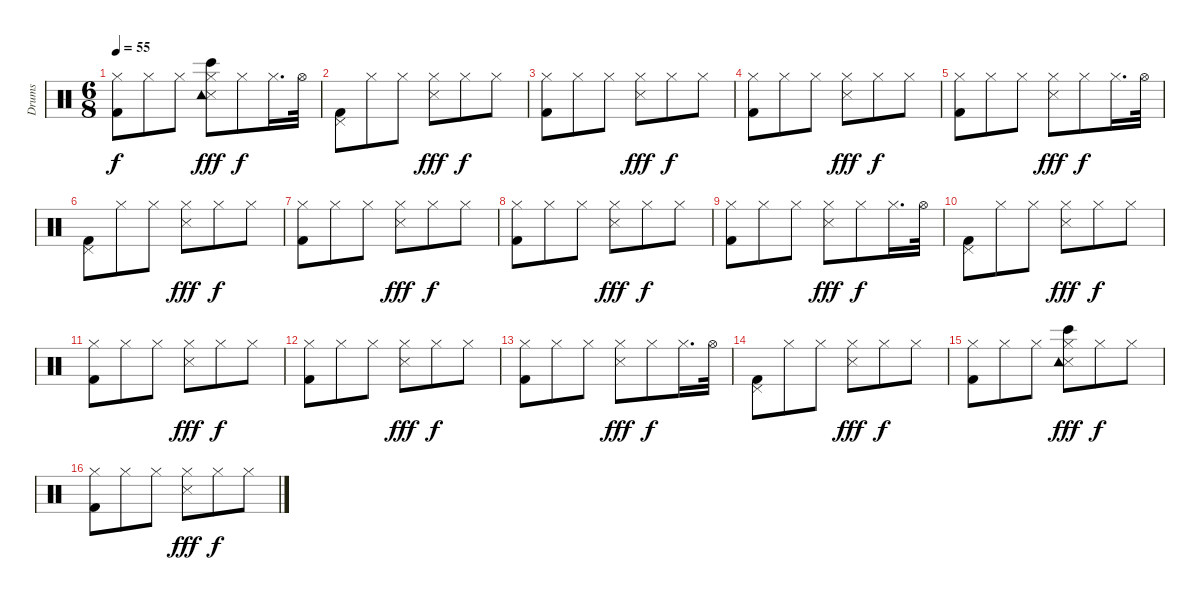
\track ("Drums               " "Drums     ") {instrument percussion}
\staff {score}
\articulation defaults
\ts (6 8)
\tempo 55
\clef neutral
\ks c
("Kick (hit) 2" "Hi-Hat (closed)").8{dy f} "Hi-Hat (closed)".8 "Hi-Hat (closed)".8 ("Hi-Hat (closed)" "Snare (side stick) 3" "Bongo High (hit)" "Tambourine (hit)").8{dy fff} "Hi-Hat (closed)".8{dy f} "Hi-Hat (closed)".16{d} "Hi-Hat (open)".32 |
("Pedal Hi-Hat (hit)" "Kick (hit) 2").8 "Hi-Hat (closed)".8 "Hi-Hat (closed)".8 ("Hi-Hat (closed)" "Snare (side stick) 3").8{dy fff} "Hi-Hat (closed)".8{dy f} "Hi-Hat (closed)".8 |
("Kick (hit) 2" "Hi-Hat (closed)").8 "Hi-Hat (closed)".8 "Hi-Hat (closed)".8 ("Hi-Hat (closed)" "Snare (side stick) 3").8{dy fff} "Hi-Hat (closed)".8{dy f} "Hi-Hat (closed)".8 |
("Kick (hit) 2" "Hi-Hat (closed)").8 "Hi-Hat (closed)".8 "Hi-Hat (closed)".8 ("Hi-Hat (closed)" "Snare (side stick) 3").8{dy fff} "Hi-Hat (closed)".8{dy f} "Hi-Hat (closed)".8 |
("Kick (hit) 2" "Hi-Hat (closed)").8 "Hi-Hat (closed)".8 "Hi-Hat (closed)".8 ("Hi-Hat (closed)" "Snare (side stick) 3").8{dy fff} "Hi-Hat (closed)".8{dy f} "Hi-Hat (closed)".16{d} "Hi-Hat (open)".32 |
("Pedal Hi-Hat (hit)" "Kick (hit) 2").8 "Hi-Hat (closed)".8 "Hi-Hat (closed)".8 ("Hi-Hat (closed)" "Snare (side stick) 3").8{dy fff} "Hi-Hat (closed)".8{dy f} "Hi-Hat (closed)".8 |
("Kick (hit) 2" "Hi-Hat (closed)").8 "Hi-Hat (closed)".8 "Hi-Hat (closed)".8 ("Hi-Hat (closed)" "Snare (side stick) 3").8{dy fff} "Hi-Hat (closed)".8{dy f} "Hi-Hat (closed)".8 |
("Kick (hit) 2" "Hi-Hat (closed)").8 "Hi-Hat (closed)".8 "Hi-Hat (closed)".8 ("Hi-Hat (closed)" "Snare (side stick) 3").8{dy fff} "Hi-Hat (closed)".8{dy f} "Hi-Hat (closed)".8 |
("Kick (hit) 2" "Hi-Hat (closed)").8 "Hi-Hat (closed)".8 "Hi-Hat (closed)".8 ("Hi-Hat (closed)" "Snare (side stick) 3").8{dy fff} "Hi-Hat (closed)".8{dy f} "Hi-Hat (closed)".16{d} "Hi-Hat (open)".32 |
("Pedal Hi-Hat (hit)" "Kick (hit) 2").8 "Hi-Hat (closed)".8 "Hi-Hat (closed)".8 ("Hi-Hat (closed)" "Snare (side stick) 3").8{dy fff} "Hi-Hat (closed)".8{dy f} "Hi-Hat (closed)".8 |
("Kick (hit) 2" "Hi-Hat (closed)").8 "Hi-Hat (closed)".8 "Hi-Hat (closed)".8 ("Hi-Hat (closed)" "Snare (side stick) 3").8{dy fff} "Hi-Hat (closed)".8{dy f} "Hi-Hat (closed)".8 |
("Kick (hit) 2" "Hi-Hat (closed)").8 "Hi-Hat (closed)".8 "Hi-Hat (closed)".8 ("Hi-Hat (closed)" "Snare (side stick) 3").8{dy fff} "Hi-Hat (closed)".8{dy f} "Hi-Hat (closed)".8 |
("Kick (hit) 2" "Hi-Hat (closed)").8 "Hi-Hat (closed)".8 "Hi-Hat (closed)".8 ("Hi-Hat (closed)" "Snare (side stick) 3").8{dy fff} "Hi-Hat (closed)".8{dy f} "Hi-Hat (closed)".16{d} "Hi-Hat (open)".32 |
("Pedal Hi-Hat (hit)" "Kick (hit) 2").8 "Hi-Hat (closed)".8 "Hi-Hat (closed)".8 ("Hi-Hat (closed)" "Snare (side stick) 3").8{dy fff} "Hi-Hat (closed)".8{dy f} "Hi-Hat (closed)".8 |
("Kick (hit) 2" "Hi-Hat (closed)").8 "Hi-Hat (closed)".8 "Hi-Hat (closed)".8 ("Hi-Hat (closed)" "Snare (side stick) 3" "Bongo High (hit)" "Tambourine (hit)").8{dy fff} "Hi-Hat (closed)".8{dy f} "Hi-Hat (closed)".8 |
("Kick (hit) 2" "Hi-Hat (closed)").8 "Hi-Hat (closed)".8 "Hi-Hat (closed)".8 ("Hi-Hat (closed)" "Snare (side stick) 3").8{dy fff} "Hi-Hat (closed)".8{dy f} "Hi-Hat (closed)".8
